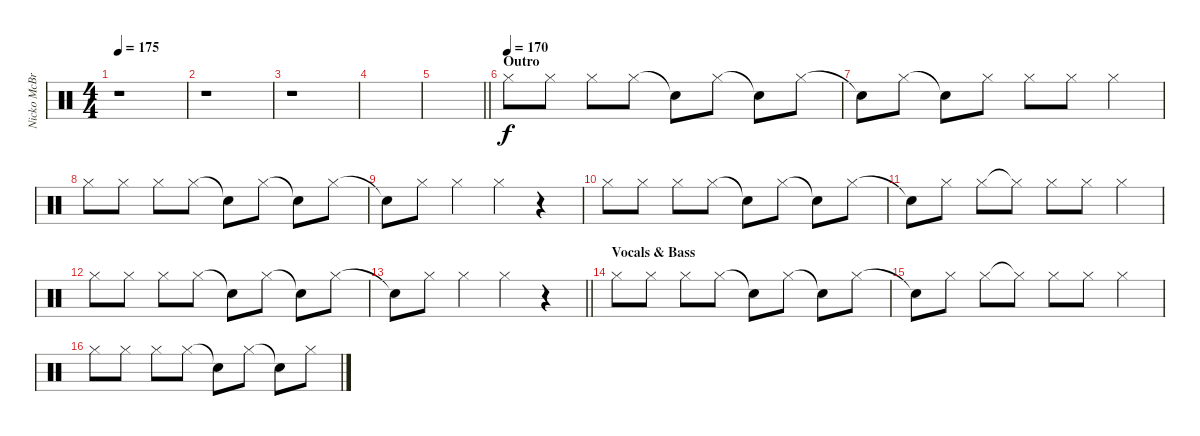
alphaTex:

\track ("Nicko McBrian" "Nicko McBr") {instrument percussion}
\staff {score}
\articulation defaults
\ts (4 4)
\tempo 175
\clef neutral
\ks c
r.1{dy f} |
r.1 |
r.1 |
|
\barLineRight lightlight
|
\section ("" "Outro")
\tempo (170)
"Hi-Hat (closed)".8 "Hi-Hat (closed)".8 "Hi-Hat (closed)".8 "Hi-Hat (closed)".8 "Snare (hit)"{t}.8 "Hi-Hat (closed)".8 "Snare (hit)"{t}.8 "Hi-Hat (closed)".8 |
"Snare (hit)"{t}.8 "Hi-Hat (closed)".8 "Snare (hit)"{t}.8 "Hi-Hat (closed)".8 "Hi-Hat (closed)".8 "Hi-Hat (closed)".8 "Hi-Hat (closed)".4 |
"Hi-Hat (closed)".8 "Hi-Hat (closed)".8 "Hi-Hat (closed)".8 "Hi-Hat (closed)".8 "Snare (hit)"{t}.8 "Hi-Hat (closed)".8 "Snare (hit)"{t}.8 "Hi-Hat (closed)".8 |
"Snare (hit)"{t}.8 "Hi-Hat (closed)".8 "Hi-Hat (closed)".4 "Hi-Hat (closed)".4 r.4 |
"Hi-Hat (closed)".8 "Hi-Hat (closed)".8 "Hi-Hat (closed)".8 "Hi-Hat (closed)".8 "Snare (hit)"{t}.8 "Hi-Hat (closed)".8 "Snare (hit)"{t}.8 "Hi-Hat (closed)".8 |
"Snare (hit)"{t}.8 "Hi-Hat (closed)".8 "Hi-Hat (closed)".8 "Hi-Hat (closed)"{t}.8 "Hi-Hat (closed)".8 "Hi-Hat (closed)".8 "Hi-Hat (closed)".4 |
"Hi-Hat (closed)".8 "Hi-Hat (closed)".8 "Hi-Hat (closed)".8 "Hi-Hat (closed)".8 "Snare (hit)"{t}.8 "Hi-Hat (closed)".8 "Snare (hit)"{t}.8 "Hi-Hat (closed)".8 |
\barLineRight lightlight "Snare (hit)"{t}.8 "Hi-Hat (closed)".8 "Hi-Hat (closed)".4 "Hi-Hat (closed)".4
r.4 |
\section ("" "Vocals & Bass")
"Hi-Hat (closed)".8 "Hi-Hat (closed)".8 "Hi-Hat (closed)".8 "Hi-Hat (closed)".8 "Snare (hit)"{t}.8 "Hi-Hat (closed)".8 "Snare (hit)"{t}.8 "Hi-Hat (closed)".8 |
"Snare (hit)"{t}.8 "Hi-Hat (closed)".8 "Hi-Hat (closed)".8 "Hi-Hat (closed)"{t}.8 "Hi-Hat (closed)".8 "Hi-Hat (closed)".8 "Hi-Hat (closed)".4 |
"Hi-Hat (closed)".8 "Hi-Hat (closed)".8 "Hi-Hat (closed)".8 "Hi-Hat (closed)".8 "Snare (hit)"{t}.8 "Hi-Hat (closed)".8 "Snare (hit)"{t}.8 "Hi-Hat (closed)".8
